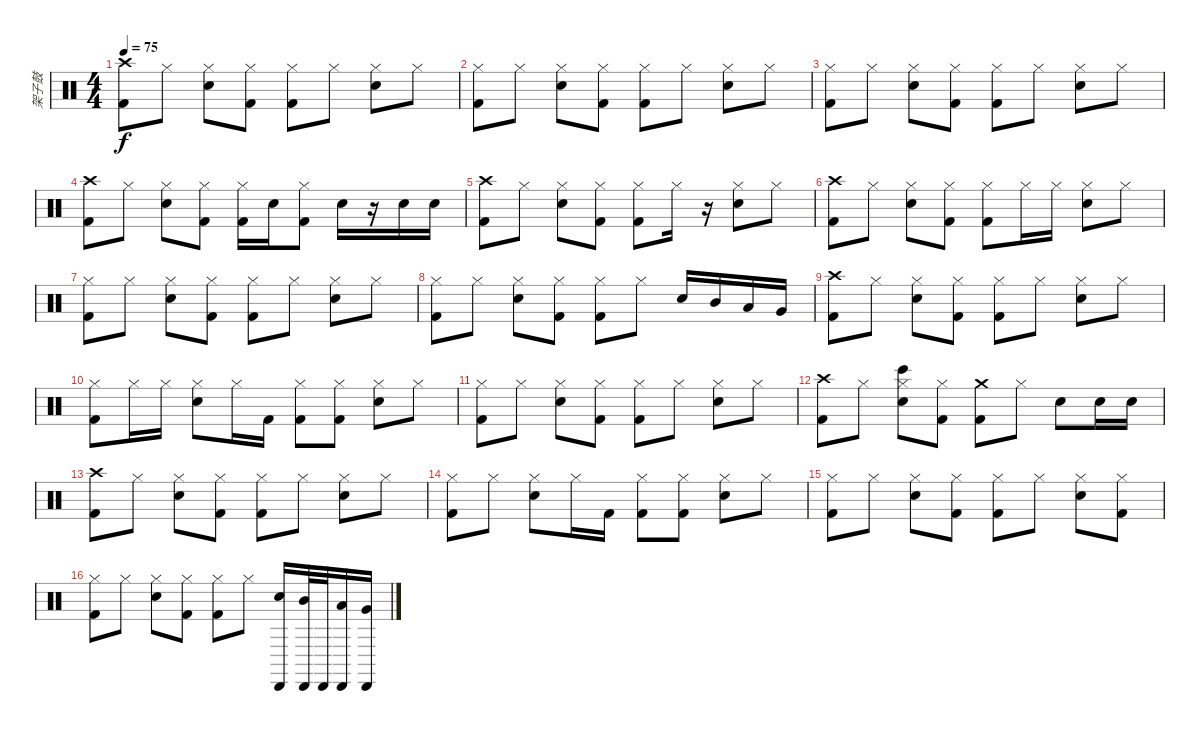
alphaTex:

\track ("架子鼓" "架子鼓") {instrument percussion}
\staff {score}
\articulation defaults
\ts (4 4)
\tempo 75
\clef neutral
\ks c
("Kick (hit) 2" "Crash high (hit)").8{dy f} "Hi-Hat (closed)".8 ("Hi-Hat (closed)" "Electric Snare (hit)").8 ("Hi-Hat (closed)" "Kick (hit) 2").8 ("Hi-Hat (closed)" "Kick (hit) 2").8 "Hi-Hat (closed)".8 ("Hi-Hat (closed)" "Electric Snare (hit)").8 "Hi-Hat (closed)".8 |
("Hi-Hat (closed)" "Kick (hit) 2").8 "Hi-Hat (closed)".8 ("Hi-Hat (closed)" "Electric Snare (hit)").8 ("Hi-Hat (closed)" "Kick (hit) 2").8 ("Hi-Hat (closed)" "Kick (hit) 2").8 "Hi-Hat (closed)".8 ("Hi-Hat (closed)" "Electric Snare (hit)").8 "Hi-Hat (closed)".8 |
("Hi-Hat (closed)" "Kick (hit) 2").8 "Hi-Hat (closed)".8 ("Hi-Hat (closed)" "Electric Snare (hit)").8 ("Hi-Hat (closed)" "Kick (hit) 2").8 ("Hi-Hat (closed)" "Kick (hit) 2").8 "Hi-Hat (closed)".8 ("Hi-Hat (closed)" "Electric Snare (hit)").8 "Hi-Hat (closed)".8 |
("Kick (hit) 2" "Crash high (hit)").8 "Hi-Hat (closed)".8 ("Hi-Hat (closed)" "Electric Snare (hit)").8 ("Hi-Hat (closed)" "Kick (hit) 2").8 ("Hi-Hat (closed)" "Kick (hit) 2").16 "Electric Snare (hit)".16 ("Hi-Hat (closed)" "Kick (hit) 2").8 "Electric Snare (hit)".16 r.16 "Electric Snare (hit)".16 "Electric Snare (hit)".16 |
("Kick (hit) 2" "Crash high (hit)").8 "Hi-Hat (closed)".8 ("Hi-Hat (closed)" "Electric Snare (hit)").8 ("Hi-Hat (closed)" "Kick (hit) 2").8 ("Hi-Hat (closed)" "Kick (hit) 2").8 "Hi-Hat (closed)".16 r.16 ("Hi-Hat (closed)" "Electric Snare (hit)").8 "Hi-Hat (closed)".8 |
("Kick (hit) 2" "Crash high (hit)").8 "Hi-Hat (closed)".8 ("Hi-Hat (closed)" "Electric Snare (hit)").8 ("Hi-Hat (closed)" "Kick (hit) 2").8 ("Hi-Hat (closed)" "Kick (hit) 2").8 "Hi-Hat (closed)".16 "Hi-Hat (closed)".16 ("Hi-Hat (closed)" "Electric Snare (hit)").8 "Hi-Hat (closed)".8 |
("Hi-Hat (closed)" "Kick (hit) 2").8 "Hi-Hat (closed)".8 ("Hi-Hat (closed)" "Electric Snare (hit)").8 ("Hi-Hat (closed)" "Kick (hit) 2").8 ("Hi-Hat (closed)" "Kick (hit) 2").8 "Hi-Hat (closed)".8 ("Hi-Hat (closed)" "Electric Snare (hit)").8 "Hi-Hat (closed)".8 |
("Hi-Hat (closed)" "Kick (hit) 2").8 "Hi-Hat (closed)".8 ("Hi-Hat (closed)" "Electric Snare (hit)").8 ("Hi-Hat (closed)" "Kick (hit) 2").8 ("Hi-Hat (closed)" "Kick (hit) 2").8 "Hi-Hat (closed)".8 "Electric Snare (hit)".16 "Mid Tom (hit)".16 "Low Tom (hit)".16 "Very Low Tom (hit)".16 |
("Kick (hit) 2" "Crash high (hit)").8 "Hi-Hat (closed)".8 ("Hi-Hat (closed)" "Electric Snare (hit)").8 ("Hi-Hat (closed)" "Kick (hit) 2").8 ("Hi-Hat (closed)" "Kick (hit) 2").8 "Hi-Hat (closed)".8 ("Hi-Hat (closed)" "Electric Snare (hit)").8 "Hi-Hat (closed)".8 |
("Hi-Hat (closed)" "Kick (hit) 2").8 "Hi-Hat (closed)".16 "Hi-Hat (closed)".16 ("Hi-Hat (closed)" "Electric Snare (hit)").8 "Hi-Hat (closed)".16 "Kick (hit) 2".16 ("Hi-Hat (closed)" "Kick (hit) 2").8 ("Hi-Hat (closed)" "Kick (hit) 2").8 ("Hi-Hat (closed)" "Electric Snare (hit)").8 "Hi-Hat (closed)".8 |
("Hi-Hat (closed)" "Kick (hit) 2").8 "Hi-Hat (closed)".8 ("Hi-Hat (closed)" "Electric Snare (hit)").8 ("Hi-Hat (closed)" "Kick (hit) 2").8 ("Hi-Hat (closed)" "Kick (hit) 2").8 "Hi-Hat (closed)".8 ("Hi-Hat (closed)" "Electric Snare (hit)").8 "Hi-Hat (closed)".8 |
("Crash high (hit)" "Kick (hit) 2").8 "Hi-Hat (closed)".8 ("Hi-Hat (closed)" "Bongo High (hit)" "Electric Snare (hit)").8 ("Hi-Hat (closed)" "Kick (hit) 2").8 ("Crash medium (hit)" "Kick (hit) 2").8 "Hi-Hat (closed)".8 "Electric Snare (hit)".8 "Electric Snare (hit)".16 "Electric Snare (hit)".16 |
("Crash high (hit)" "Kick (hit) 2").8 "Hi-Hat (closed)".8 ("Hi-Hat (closed)" "Electric Snare (hit)").8 ("Hi-Hat (closed)" "Kick (hit) 2").8 ("Hi-Hat (closed)" "Kick (hit) 2").8 "Hi-Hat (closed)".8 ("Hi-Hat (closed)" "Electric Snare (hit)").8 "Hi-Hat (closed)".8 |
("Hi-Hat (closed)" "Kick (hit) 2").8 "Hi-Hat (closed)".8 ("Hi-Hat (closed)" "Electric Snare (hit)").8 "Hi-Hat (closed)".16 "Kick (hit) 2".16 ("Hi-Hat (closed)" "Kick (hit) 2").8 ("Hi-Hat (closed)" "Kick (hit) 2").8 ("Hi-Hat (closed)" "Electric Snare (hit)").8 "Hi-Hat (closed)".8 |
("Hi-Hat (closed)" "Kick (hit) 2").8 "Hi-Hat (closed)".8 ("Hi-Hat (closed)" "Electric Snare (hit)").8 ("Hi-Hat (closed)" "Kick (hit) 2").8 ("Hi-Hat (closed)" "Kick (hit) 2").8 "Hi-Hat (closed)".8 ("Hi-Hat (closed)" "Electric Snare (hit)").8 ("Hi-Hat (closed)" "Kick (hit) 2").8 |
("Hi-Hat (closed)" "Kick (hit) 2").8 "Hi-Hat (closed)".8 ("Hi-Hat (closed)" "Electric Snare (hit)").8 ("Hi-Hat (closed)" "Kick (hit) 2").8 ("Hi-Hat (closed)" "Kick (hit) 2").8 "Hi-Hat (closed)".8 ("Cabasa (hit)" "Electric Snare (hit)").16 ("Cabasa (hit)" "Mid Tom (hit)").32 "Cabasa (hit)".32 ("Cabasa (hit)" "Low Tom (hit)").16 ("Cabasa (hit)" "Very Low Tom (hit)").16
